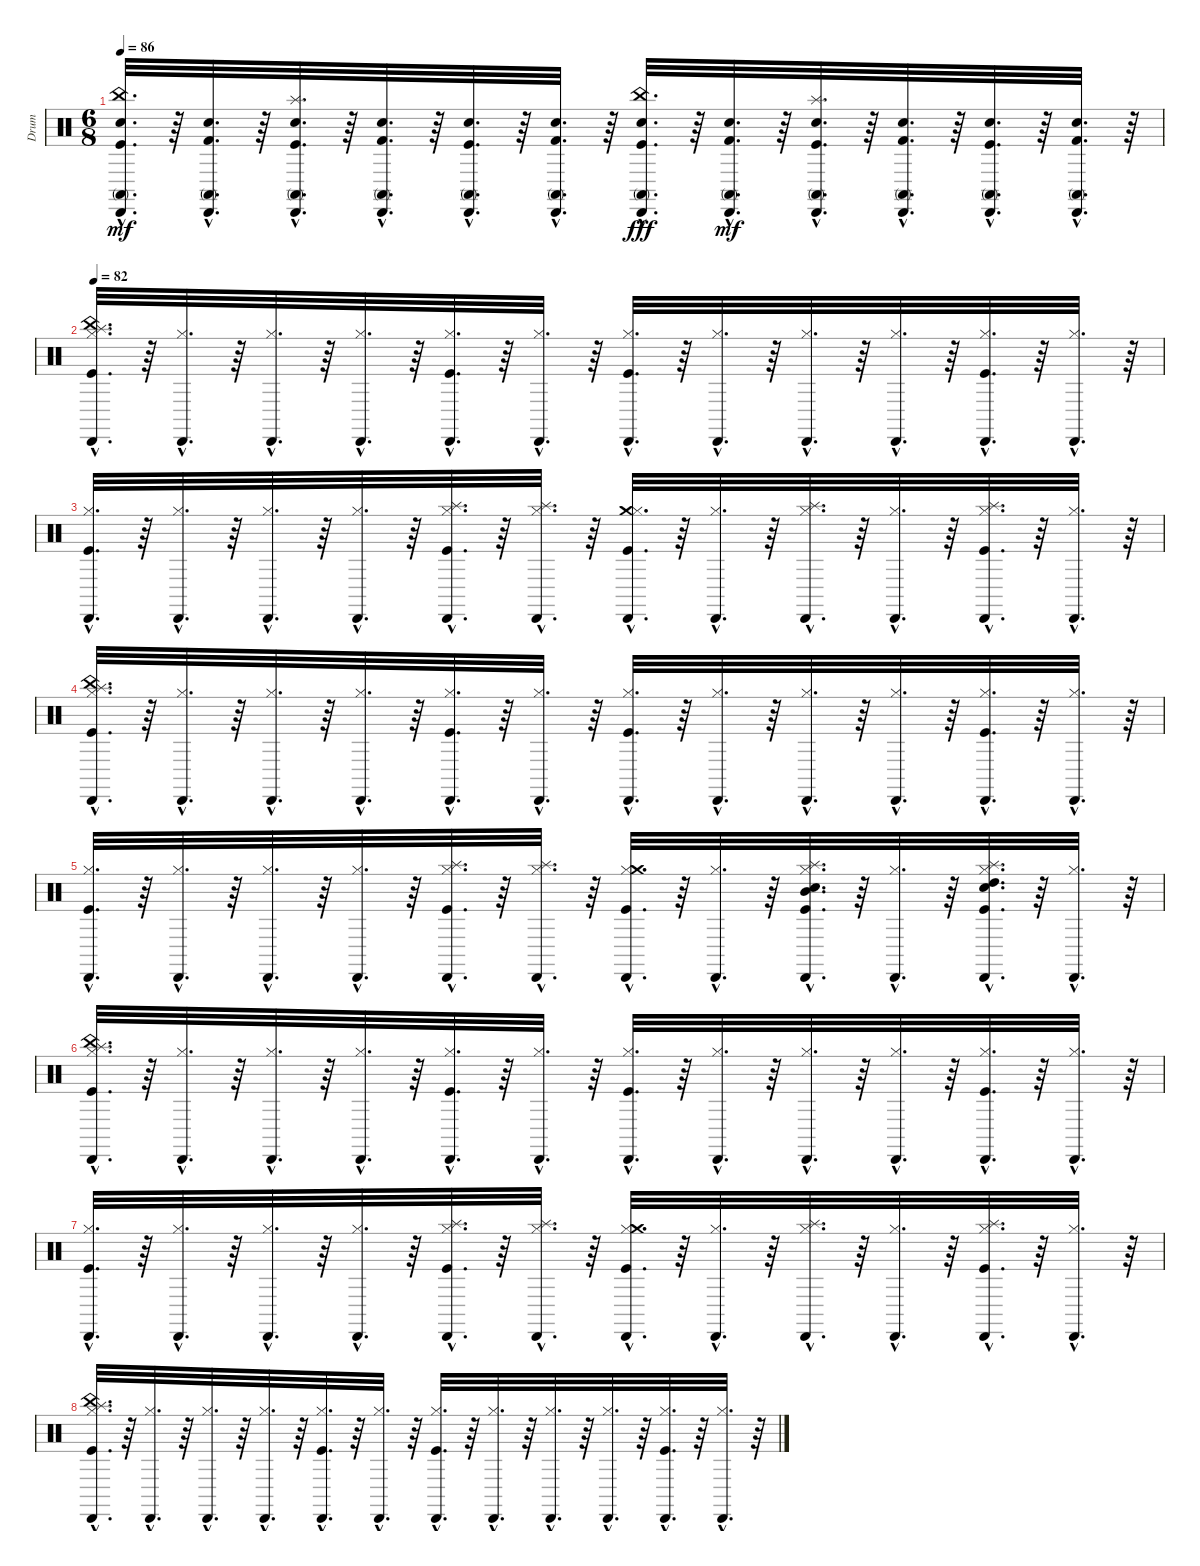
\track ("Drum" "Drum") {instrument percussion}
\staff {score}
\articulation defaults
\ts (6 8)
\tempo 86
\clef neutral
\ks c
("China (hit)"{hac} "Electric Snare (hit)"{hac} "Kick (hit)"{hac} "Conga high (mute)"{hac} "Cabasa (hit)"{hac}).32{d dy mf} r.64 ("Conga high (mute)"{hac} "Cabasa (hit)"{hac} "Electric Snare (hit)"{hac} "Kick (hit) 2"{hac}).32{d} r.64 ("Splash (hit)"{hac} "Conga high (mute)"{hac} "Electric Snare (hit)"{hac} "Cabasa (hit)"{hac} "Kick (hit)"{hac}).32{d} r.64 ("Conga high (mute)"{hac} "Cabasa (hit)"{hac} "Electric Snare (hit)"{hac} "Kick (hit) 2"{hac}).32{d} r.64 ("Conga high (mute)"{hac} "Cabasa (hit)"{hac} "Electric Snare (hit)"{hac} "Kick (hit)"{hac}).32{d} r.64 ("Conga high (mute)"{hac} "Cabasa (hit)"{hac} "Electric Snare (hit)"{hac} "Kick (hit) 2"{hac}).32{d} r.64 ("China (hit)"{hac} "Conga high (mute)"{hac} "Cabasa (hit)"{hac} "Kick (hit)"{hac} "Electric Snare (hit)"{hac}).32{d dy fff} r.64 ("Conga high (mute)"{hac} "Cabasa (hit)"{hac} "Electric Snare (hit)"{hac} "Kick (hit) 2"{hac}).32{d dy mf} r.64 ("Splash (hit)"{hac} "Electric Snare (hit)"{hac} "Kick (hit)"{hac} "Conga high (mute)"{hac} "Cabasa (hit)"{hac}).32{d} r.64 ("Conga high (mute)"{hac} "Cabasa (hit)"{hac} "Electric Snare (hit)"{hac} "Kick (hit) 2"{hac}).32{d} r.64 ("Electric Snare (hit)"{hac} "Kick (hit)"{hac} "Cabasa (hit)"{hac} "Conga high (mute)"{hac}).32{d} r.64 ("Conga high (mute)"{hac} "Cabasa (hit)"{hac} "Electric Snare (hit)"{hac} "Kick (hit) 2"{hac}).32{d} r.64 |
\tempo 82
("Cabasa (hit)"{hac} "Splash (hit)"{hac} "Hi-Hat (closed)"{hac} "Kick (hit)"{hac} "China (hit)"{hac}).32{d} r.64 ("Cabasa (hit)"{hac} "Hi-Hat (closed)"{hac}).32{d} r.64 ("Cabasa (hit)"{hac} "Hi-Hat (closed)"{hac}).32{d} r.64 ("Cabasa (hit)"{hac} "Hi-Hat (closed)"{hac}).32{d} r.64 ("Cabasa (hit)"{hac} "Hi-Hat (closed)"{hac} "Kick (hit)"{hac}).32{d} r.64 ("Cabasa (hit)"{hac} "Hi-Hat (closed)"{hac}).32{d} r.64 ("Cabasa (hit)"{hac} "Hi-Hat (closed)"{hac} "Kick (hit)"{hac}).32{d} r.64 ("Cabasa (hit)"{hac} "Hi-Hat (closed)"{hac}).32{d} r.64 ("Cabasa (hit)"{hac} "Hi-Hat (closed)"{hac}).32{d} r.64 ("Cabasa (hit)"{hac} "Hi-Hat (closed)"{hac}).32{d} r.64 ("Cabasa (hit)"{hac} "Hi-Hat (closed)"{hac} "Kick (hit)"{hac}).32{d} r.64 ("Cabasa (hit)"{hac} "Hi-Hat (closed)"{hac}).32{d} r.64 |
("Hi-Hat (closed)"{hac} "Kick (hit)"{hac} "Cabasa (hit)"{hac}).32{d} r.64 ("Hi-Hat (closed)"{hac} "Cabasa (hit)"{hac}).32{d} r.64 ("Hi-Hat (closed)"{hac} "Cabasa (hit)"{hac}).32{d} r.64 ("Hi-Hat (closed)"{hac} "Cabasa (hit)"{hac}).32{d} r.64 ("Splash (hit)"{hac} "Hi-Hat (closed)"{hac} "Kick (hit)"{hac} "Cabasa (hit)"{hac}).32{d} r.64 ("Splash (hit)"{hac} "Hi-Hat (closed)"{hac} "Cabasa (hit)"{hac}).32{d} r.64 ("Crash medium (hit)"{hac} "Hi-Hat (closed)"{hac} "Kick (hit)"{hac} "Cabasa (hit)"{hac}).32{d} r.64 ("Hi-Hat (closed)"{hac} "Cabasa (hit)"{hac}).32{d} r.64 ("Splash (hit)"{hac} "Hi-Hat (closed)"{hac} "Cabasa (hit)"{hac}).32{d} r.64 ("Hi-Hat (closed)"{hac} "Cabasa (hit)"{hac}).32{d} r.64 ("Splash (hit)"{hac} "Hi-Hat (closed)"{hac} "Kick (hit)"{hac} "Cabasa (hit)"{hac}).32{d} r.64 ("Hi-Hat (closed)"{hac} "Cabasa (hit)"{hac}).32{d} r.64 |
("China (hit)"{hac} "Kick (hit)"{hac} "Hi-Hat (closed)"{hac} "Splash (hit)"{hac} "Cabasa (hit)"{hac}).32{d} r.64 ("Hi-Hat (closed)"{hac} "Cabasa (hit)"{hac}).32{d} r.64 ("Hi-Hat (closed)"{hac} "Cabasa (hit)"{hac}).32{d} r.64 ("Hi-Hat (closed)"{hac} "Cabasa (hit)"{hac}).32{d} r.64 ("Kick (hit)"{hac} "Hi-Hat (closed)"{hac} "Cabasa (hit)"{hac}).32{d} r.64 ("Hi-Hat (closed)"{hac} "Cabasa (hit)"{hac}).32{d} r.64 ("Kick (hit)"{hac} "Hi-Hat (closed)"{hac} "Cabasa (hit)"{hac}).32{d} r.64 ("Hi-Hat (closed)"{hac} "Cabasa (hit)"{hac}).32{d} r.64 ("Hi-Hat (closed)"{hac} "Cabasa (hit)"{hac}).32{d} r.64 ("Hi-Hat (closed)"{hac} "Cabasa (hit)"{hac}).32{d} r.64 ("Kick (hit)"{hac} "Hi-Hat (closed)"{hac} "Cabasa (hit)"{hac}).32{d} r.64 ("Hi-Hat (closed)"{hac} "Cabasa (hit)"{hac}).32{d} r.64 |
("Cabasa (hit)"{hac} "Kick (hit)"{hac} "Hi-Hat (closed)"{hac}).32{d} r.64 ("Cabasa (hit)"{hac} "Hi-Hat (closed)"{hac}).32{d} r.64 ("Cabasa (hit)"{hac} "Hi-Hat (closed)"{hac}).32{d} r.64 ("Cabasa (hit)"{hac} "Hi-Hat (closed)"{hac}).32{d} r.64 ("Cabasa (hit)"{hac} "Kick (hit)"{hac} "Hi-Hat (closed)"{hac} "Splash (hit)"{hac}).32{d} r.64 ("Cabasa (hit)"{hac} "Hi-Hat (closed)"{hac} "Splash (hit)"{hac}).32{d} r.64 ("Cabasa (hit)"{hac} "Kick (hit)"{hac} "Hi-Hat (closed)"{hac} "Crash medium (hit)"{hac}).32{d} r.64 ("Cabasa (hit)"{hac} "Hi-Hat (closed)"{hac}).32{d} r.64 ("Cabasa (hit)"{hac} "Mid Tom (hit)"{hac} "Snare (hit) 2"{hac} "Kick (hit)"{hac} "Hi-Hat (closed)"{hac} "Splash (hit)"{hac}).32{d} r.64 ("Cabasa (hit)"{hac} "Hi-Hat (closed)"{hac}).32{d} r.64 ("Cabasa (hit)"{hac} "High Tom (hit)"{hac} "Snare (hit) 2"{hac} "Kick (hit)"{hac} "Hi-Hat (closed)"{hac} "Splash (hit)"{hac}).32{d} r.64 ("Cabasa (hit)"{hac} "Hi-Hat (closed)"{hac}).32{d} r.64 |
("China (hit)"{hac} "Kick (hit)"{hac} "Hi-Hat (closed)"{hac} "Splash (hit)"{hac} "Cabasa (hit)"{hac}).32{d} r.64 ("Hi-Hat (closed)"{hac} "Cabasa (hit)"{hac}).32{d} r.64 ("Hi-Hat (closed)"{hac} "Cabasa (hit)"{hac}).32{d} r.64 ("Hi-Hat (closed)"{hac} "Cabasa (hit)"{hac}).32{d} r.64 ("Kick (hit)"{hac} "Hi-Hat (closed)"{hac} "Cabasa (hit)"{hac}).32{d} r.64 ("Hi-Hat (closed)"{hac} "Cabasa (hit)"{hac}).32{d} r.64 ("Kick (hit)"{hac} "Hi-Hat (closed)"{hac} "Cabasa (hit)"{hac}).32{d} r.64 ("Hi-Hat (closed)"{hac} "Cabasa (hit)"{hac}).32{d} r.64 ("Hi-Hat (closed)"{hac} "Cabasa (hit)"{hac}).32{d} r.64 ("Hi-Hat (closed)"{hac} "Cabasa (hit)"{hac}).32{d} r.64 ("Kick (hit)"{hac} "Hi-Hat (closed)"{hac} "Cabasa (hit)"{hac}).32{d} r.64 ("Hi-Hat (closed)"{hac} "Cabasa (hit)"{hac}).32{d} r.64 |
("Cabasa (hit)"{hac} "Kick (hit)"{hac} "Hi-Hat (closed)"{hac}).32{d} r.64 ("Cabasa (hit)"{hac} "Hi-Hat (closed)"{hac}).32{d} r.64 ("Cabasa (hit)"{hac} "Hi-Hat (closed)"{hac}).32{d} r.64 ("Cabasa (hit)"{hac} "Hi-Hat (closed)"{hac}).32{d} r.64 ("Cabasa (hit)"{hac} "Kick (hit)"{hac} "Hi-Hat (closed)"{hac} "Splash (hit)"{hac}).32{d} r.64 ("Cabasa (hit)"{hac} "Hi-Hat (closed)"{hac} "Splash (hit)"{hac}).32{d} r.64 ("Cabasa (hit)"{hac} "Kick (hit)"{hac} "Hi-Hat (closed)"{hac} "Crash medium (hit)"{hac}).32{d} r.64 ("Cabasa (hit)"{hac} "Hi-Hat (closed)"{hac}).32{d} r.64 ("Cabasa (hit)"{hac} "Hi-Hat (closed)"{hac} "Splash (hit)"{hac}).32{d} r.64 ("Cabasa (hit)"{hac} "Hi-Hat (closed)"{hac}).32{d} r.64 ("Cabasa (hit)"{hac} "Kick (hit)"{hac} "Hi-Hat (closed)"{hac} "Splash (hit)"{hac}).32{d} r.64 ("Cabasa (hit)"{hac} "Hi-Hat (closed)"{hac}).32{d} r.64 |
("Cabasa (hit)"{hac} "Hi-Hat (closed)"{hac} "Splash (hit)"{hac} "China (hit)"{hac} "Kick (hit)"{hac}).32{d} r.64 ("Hi-Hat (closed)"{hac} "Cabasa (hit)"{hac}).32{d} r.64 ("Hi-Hat (closed)"{hac} "Cabasa (hit)"{hac}).32{d} r.64 ("Cabasa (hit)"{hac} "Hi-Hat (closed)"{hac}).32{d} r.64 ("Kick (hit)"{hac} "Hi-Hat (closed)"{hac} "Cabasa (hit)"{hac}).32{d} r.64 ("Hi-Hat (closed)"{hac} "Cabasa (hit)"{hac}).32{d} r.64 ("Kick (hit)"{hac} "Cabasa (hit)"{hac} "Hi-Hat (closed)"{hac}).32{d} r.64 ("Hi-Hat (closed)"{hac} "Cabasa (hit)"{hac}).32{d} r.64 ("Cabasa (hit)"{hac} "Hi-Hat (closed)"{hac}).32{d} r.64 ("Cabasa (hit)"{hac} "Hi-Hat (closed)"{hac}).32{d} r.64 ("Kick (hit)"{hac} "Cabasa (hit)"{hac} "Hi-Hat (closed)"{hac}).32{d} r.64 ("Cabasa (hit)"{hac} "Hi-Hat (closed)"{hac}).32{d} r.64
